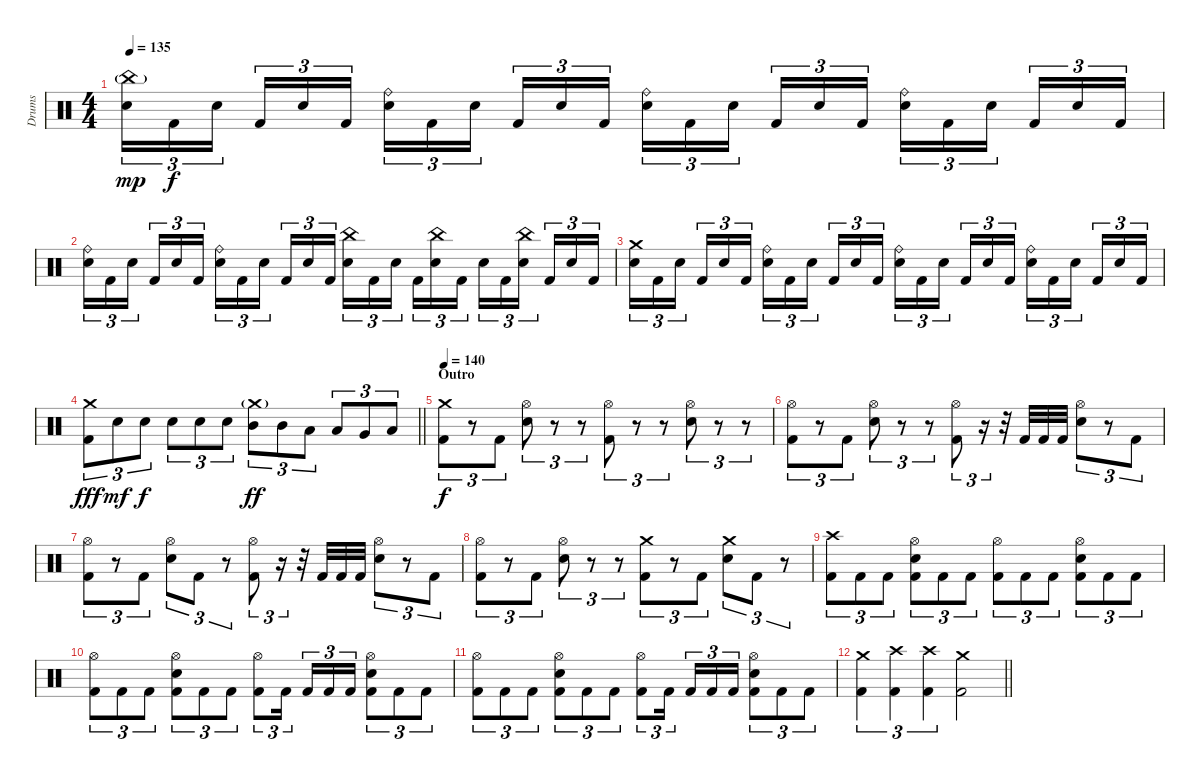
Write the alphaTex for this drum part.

\track ("Drums" "Drums") {instrument percussion}
\staff {score}
\articulation defaults
\ts (4 4)
\tempo 135
\clef neutral
\ks c
("China (hit)"{g} "Electric Snare (hit)").16{tu (3 2) dy mp} "Kick (hit) 2".16{tu (3 2) dy f} "Electric Snare (hit)".16{tu (3 2) beam splitsecondary} "Kick (hit) 2".16{tu (3 2)} "Electric Snare (hit)".16{tu (3 2)} "Kick (hit) 2".16{tu (3 2)} ("Ride (bell)" "Electric Snare (hit)").16{tu (3 2)} "Kick (hit) 2".16{tu (3 2)} "Electric Snare (hit)".16{tu (3 2) beam splitsecondary} "Kick (hit) 2".16{tu (3 2)} "Electric Snare (hit)".16{tu (3 2)} "Kick (hit) 2".16{tu (3 2)} ("Ride (bell)" "Electric Snare (hit)").16{tu (3 2)} "Kick (hit) 2".16{tu (3 2)} "Electric Snare (hit)".16{tu (3 2) beam splitsecondary} "Kick (hit) 2".16{tu (3 2)} "Electric Snare (hit)".16{tu (3 2)} "Kick (hit) 2".16{tu (3 2)} ("Ride (bell)" "Electric Snare (hit)").16{tu (3 2)} "Kick (hit) 2".16{tu (3 2)} "Electric Snare (hit)".16{tu (3 2) beam splitsecondary} "Kick (hit) 2".16{tu (3 2)} "Electric Snare (hit)".16{tu (3 2)} "Kick (hit) 2".16{tu (3 2)} |
("Ride (bell)" "Electric Snare (hit)").16{tu (3 2)} "Kick (hit) 2".16{tu (3 2)} "Electric Snare (hit)".16{tu (3 2) beam splitsecondary} "Kick (hit) 2".16{tu (3 2)} "Electric Snare (hit)".16{tu (3 2)} "Kick (hit) 2".16{tu (3 2)} ("Ride (bell)" "Electric Snare (hit)").16{tu (3 2)} "Kick (hit) 2".16{tu (3 2)} "Electric Snare (hit)".16{tu (3 2) beam splitsecondary} "Kick (hit) 2".16{tu (3 2)} "Electric Snare (hit)".16{tu (3 2)} "Kick (hit) 2".16{tu (3 2)} ("China (hit)" "Electric Snare (hit)").16{tu (3 2)} "Kick (hit) 2".16{tu (3 2)} "Electric Snare (hit)".16{tu (3 2) beam splitsecondary} "Kick (hit) 2".16{tu (3 2)} ("China (hit)" "Electric Snare (hit)").16{tu (3 2)} "Kick (hit) 2".16{tu (3 2)} "Electric Snare (hit)".16{tu (3 2)} "Kick (hit) 2".16{tu (3 2)} ("China (hit)" "Electric Snare (hit)").16{tu (3 2) beam splitsecondary} "Kick (hit) 2".16{tu (3 2)} "Electric Snare (hit)".16{tu (3 2)} "Kick (hit) 2".16{tu (3 2)} |
("Crash medium (hit)" "Electric Snare (hit)").16{tu (3 2)} "Kick (hit) 2".16{tu (3 2)} "Electric Snare (hit)".16{tu (3 2) beam splitsecondary} "Kick (hit) 2".16{tu (3 2)} "Electric Snare (hit)".16{tu (3 2)} "Kick (hit) 2".16{tu (3 2)} ("Ride (bell)" "Electric Snare (hit)").16{tu (3 2)} "Kick (hit) 2".16{tu (3 2)} "Electric Snare (hit)".16{tu (3 2) beam splitsecondary} "Kick (hit) 2".16{tu (3 2)} "Electric Snare (hit)".16{tu (3 2)} "Kick (hit) 2".16{tu (3 2)} ("Ride (bell)" "Electric Snare (hit)").16{tu (3 2)} "Kick (hit) 2".16{tu (3 2)} "Electric Snare (hit)".16{tu (3 2) beam splitsecondary} "Kick (hit) 2".16{tu (3 2)} "Electric Snare (hit)".16{tu (3 2)} "Kick (hit) 2".16{tu (3 2)} ("Ride (bell)" "Electric Snare (hit)").16{tu (3 2)} "Kick (hit) 2".16{tu (3 2)} "Electric Snare (hit)".16{tu (3 2) beam splitsecondary} "Kick (hit) 2".16{tu (3 2)} "Electric Snare (hit)".16{tu (3 2)} "Kick (hit) 2".16{tu (3 2)} |
\barLineRight lightlight
("Crash medium (hit)" "Kick (hit) 2").8{tu (3 2) dy fff} "Electric Snare (hit)".8{tu (3 2) dy mf} "Electric Snare (hit)".8{tu (3 2) dy f} "Electric Snare (hit)".8{tu (3 2)} "Electric Snare (hit)".8{tu (3 2)} "Electric Snare (hit)".8{tu (3 2)} ("Crash medium (hit)"{g} "Mid Tom (hit)").8{tu (3 2) dy ff} "Mid Tom (hit)".8{tu (3 2)} "Low Tom (hit)".8{tu (3 2)} "Low Tom (hit)".8{tu (3 2)} "Very Low Tom (hit)".8{tu (3 2)} "Low Floor Tom (hit)".8{tu (3 2)} |
\section ("" "Outro")
\tempo 140
("Crash medium (hit)" "Kick (hit) 2").8{tu (3 2) dy f} r.8{tu (3 2)} "Kick (hit) 2".8{tu (3 2)} ("Hi-Hat (open)" "Electric Snare (hit)").8{tu (3 2)} r.8{tu (3 2)} r.8{tu (3 2)} ("Hi-Hat (open)" "Kick (hit) 2").8{tu (3 2)} r.8{tu (3 2)} r.8{tu (3 2)} ("Hi-Hat (open)" "Electric Snare (hit)").8{tu (3 2)} r.8{tu (3 2)} r.8{tu (3 2)} |
("Hi-Hat (open)" "Kick (hit) 2").8{tu (3 2)} r.8{tu (3 2)} "Kick (hit) 2".8{tu (3 2)} ("Hi-Hat (open)" "Electric Snare (hit)").8{tu (3 2)} r.8{tu (3 2)} r.8{tu (3 2)} ("Hi-Hat (open)" "Kick (hit) 2").8{tu (3 2)} r.16{tu (3 2)} r.32 "Kick (hit) 2".32 "Kick (hit) 2".32 "Kick (hit) 2".32 ("Hi-Hat (open)" "Electric Snare (hit)").8{tu (3 2)} r.8{tu (3 2)} "Kick (hit) 2".8{tu (3 2)} |
("Hi-Hat (open)" "Kick (hit) 2").8{tu (3 2)} r.8{tu (3 2)} "Kick (hit) 2".8{tu (3 2)} ("Hi-Hat (open)" "Electric Snare (hit)").8{tu (3 2)} "Kick (hit) 2".8{tu (3 2)} r.8{tu (3 2)} ("Hi-Hat (open)" "Kick (hit) 2").8{tu (3 2)} r.16{tu (3 2)} r.32 "Kick (hit) 2".32 "Kick (hit) 2".32 "Kick (hit) 2".32 ("Hi-Hat (open)" "Electric Snare (hit)").8{tu (3 2)} r.8{tu (3 2)} "Kick (hit) 2".8{tu (3 2)} |
("Hi-Hat (open)" "Kick (hit) 2").8{tu (3 2)} r.8{tu (3 2)} "Kick (hit) 2".8{tu (3 2)} ("Hi-Hat (open)" "Electric Snare (hit)").8{tu (3 2)} r.8{tu (3 2)} r.8{tu (3 2)} ("Crash medium (hit)" "Kick (hit) 2").8{tu (3 2)} r.8{tu (3 2)} "Kick (hit) 2".8{tu (3 2)} ("Crash medium (hit)" "Electric Snare (hit)").8{tu (3 2)} "Kick (hit) 2".8{tu (3 2)} r.8{tu (3 2)} |
("Crash high (hit)" "Kick (hit) 2").8{tu (3 2)} "Kick (hit) 2".8{tu (3 2)} "Kick (hit) 2".8{tu (3 2)} ("Hi-Hat (open)" "Electric Snare (hit)" "Kick (hit) 2").8{tu (3 2)} "Kick (hit) 2".8{tu (3 2)} "Kick (hit) 2".8{tu (3 2)} ("Hi-Hat (open)" "Kick (hit) 2").8{tu (3 2)} "Kick (hit) 2".8{tu (3 2)} "Kick (hit) 2".8{tu (3 2)} ("Hi-Hat (open)" "Electric Snare (hit)" "Kick (hit) 2").8{tu (3 2)} "Kick (hit) 2".8{tu (3 2)} "Kick (hit) 2".8{tu (3 2)} |
("Hi-Hat (open)" "Kick (hit) 2").8{tu (3 2)} "Kick (hit) 2".8{tu (3 2)} "Kick (hit) 2".8{tu (3 2)} ("Hi-Hat (open)" "Electric Snare (hit)" "Kick (hit) 2").8{tu (3 2)} "Kick (hit) 2".8{tu (3 2)} "Kick (hit) 2".8{tu (3 2)} ("Hi-Hat (open)" "Kick (hit) 2").8{tu (3 2)} "Kick (hit) 2".16{tu (3 2) beam splitsecondary} "Kick (hit) 2".16{tu (3 2)} "Kick (hit) 2".16{tu (3 2)} "Kick (hit) 2".16{tu (3 2)} ("Hi-Hat (open)" "Electric Snare (hit)" "Kick (hit) 2").8{tu (3 2)} "Kick (hit) 2".8{tu (3 2)} "Kick (hit) 2".8{tu (3 2)} |
("Hi-Hat (open)" "Kick (hit) 2").8{tu (3 2)} "Kick (hit) 2".8{tu (3 2)} "Kick (hit) 2".8{tu (3 2)} ("Hi-Hat (open)" "Electric Snare (hit)" "Kick (hit) 2").8{tu (3 2)} "Kick (hit) 2".8{tu (3 2)} "Kick (hit) 2".8{tu (3 2)} ("Hi-Hat (open)" "Kick (hit) 2").8{tu (3 2)} "Kick (hit) 2".16{tu (3 2) beam splitsecondary} "Kick (hit) 2".16{tu (3 2)} "Kick (hit) 2".16{tu (3 2)} "Kick (hit) 2".16{tu (3 2)} ("Hi-Hat (open)" "Electric Snare (hit)" "Kick (hit) 2").8{tu (3 2)} "Kick (hit) 2".8{tu (3 2)} "Kick (hit) 2".8{tu (3 2)} |
\barLineRight lightlight
("Crash medium (hit)" "Kick (hit) 2").4{tu (3 2)} ("Crash high (hit)" "Kick (hit) 2").4{tu (3 2)} ("Crash high (hit)" "Kick (hit) 2").4{tu (3 2)} ("Crash medium (hit)" "Kick (hit) 2").2
